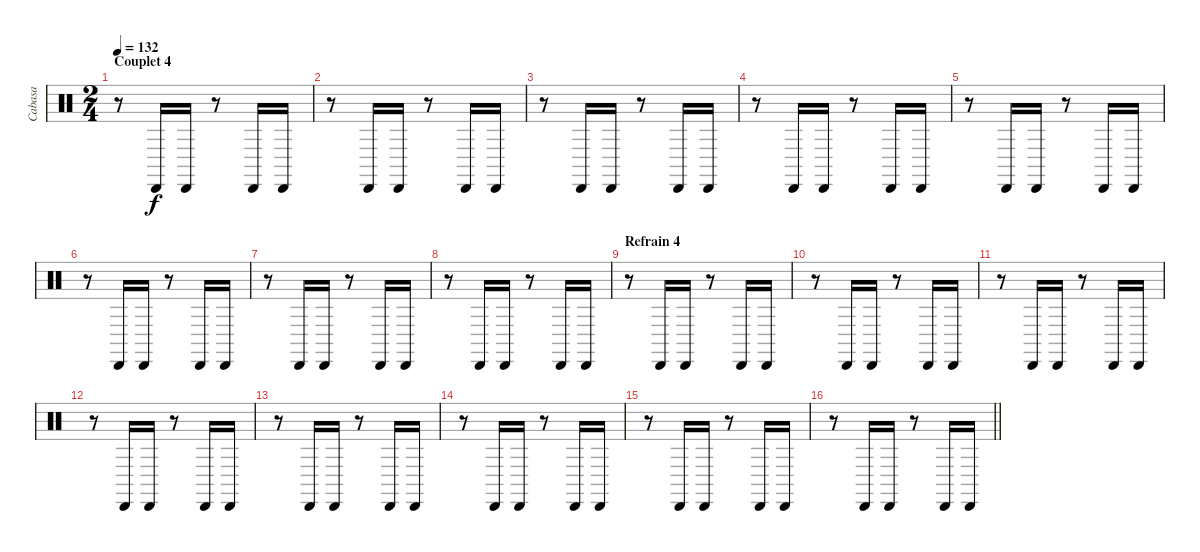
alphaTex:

\track ("Cabasa" "Cabasa") {instrument percussion}
\staff {score}
\articulation defaults
\ts (2 4)
\section ("" "Couplet 4")
\tempo 132
\clef neutral
\ks c
r.8{dy f} "Cabasa (hit)".16 "Cabasa (hit)".16 r.8 "Cabasa (hit)".16 "Cabasa (hit)".16 |
r.8 "Cabasa (hit)".16 "Cabasa (hit)".16 r.8 "Cabasa (hit)".16 "Cabasa (hit)".16 |
r.8 "Cabasa (hit)".16 "Cabasa (hit)".16 r.8 "Cabasa (hit)".16 "Cabasa (hit)".16 |
r.8 "Cabasa (hit)".16 "Cabasa (hit)".16 r.8 "Cabasa (hit)".16 "Cabasa (hit)".16 |
r.8 "Cabasa (hit)".16 "Cabasa (hit)".16 r.8 "Cabasa (hit)".16 "Cabasa (hit)".16 |
r.8 "Cabasa (hit)".16 "Cabasa (hit)".16 r.8 "Cabasa (hit)".16 "Cabasa (hit)".16 |
r.8 "Cabasa (hit)".16 "Cabasa (hit)".16 r.8 "Cabasa (hit)".16 "Cabasa (hit)".16 |
r.8 "Cabasa (hit)".16 "Cabasa (hit)".16 r.8 "Cabasa (hit)".16 "Cabasa (hit)".16 |
\section ("" "Refrain 4")
r.8 "Cabasa (hit)".16 "Cabasa (hit)".16 r.8 "Cabasa (hit)".16 "Cabasa (hit)".16 |
r.8 "Cabasa (hit)".16 "Cabasa (hit)".16 r.8 "Cabasa (hit)".16 "Cabasa (hit)".16 |
r.8 "Cabasa (hit)".16 "Cabasa (hit)".16 r.8 "Cabasa (hit)".16 "Cabasa (hit)".16 |
r.8 "Cabasa (hit)".16 "Cabasa (hit)".16 r.8 "Cabasa (hit)".16 "Cabasa (hit)".16 |
r.8 "Cabasa (hit)".16 "Cabasa (hit)".16 r.8 "Cabasa (hit)".16 "Cabasa (hit)".16 |
r.8 "Cabasa (hit)".16 "Cabasa (hit)".16 r.8 "Cabasa (hit)".16 "Cabasa (hit)".16 |
r.8 "Cabasa (hit)".16 "Cabasa (hit)".16 r.8 "Cabasa (hit)".16 "Cabasa (hit)".16 |
\barLineRight lightlight
r.8 "Cabasa (hit)".16 "Cabasa (hit)".16 r.8 "Cabasa (hit)".16 "Cabasa (hit)".16
